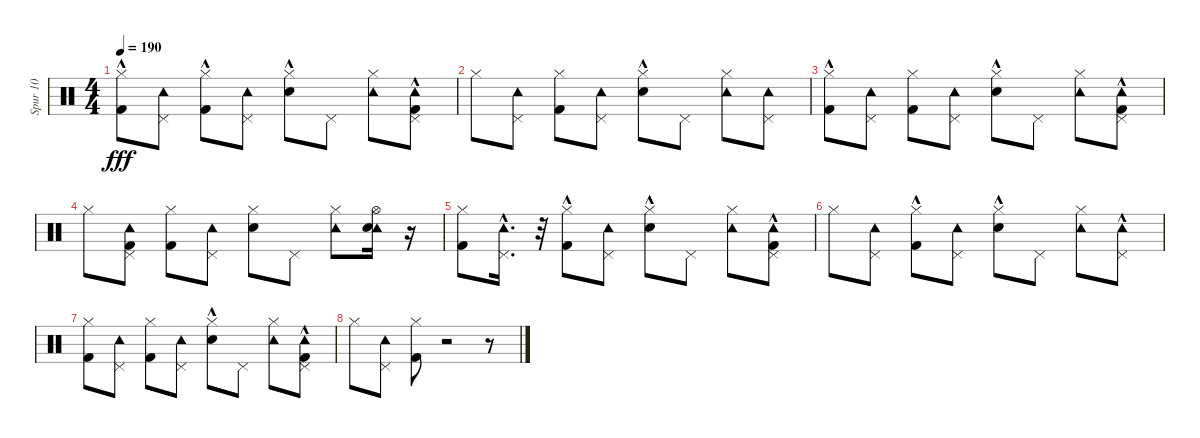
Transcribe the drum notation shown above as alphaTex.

\track ("Spur 10" "Spur 10") {instrument percussion}
\staff {score}
\articulation defaults
\ts (4 4)
\tempo 190
\clef neutral
\ks c
("Hi-Hat (closed)" "Kick (hit) 2"{hac}).8{dy fff} ("Tambourine (hit)" "Pedal Hi-Hat (hit)").8 ("Hi-Hat (closed)" "Kick (hit) 2"{hac}).8 ("Pedal Hi-Hat (hit)" "Tambourine (hit)").8 ("Hi-Hat (closed)" "Electric Snare (hit)"{hac}).8 "Pedal Hi-Hat (hit)".8 ("Tambourine (hit)" "Hi-Hat (closed)").8 ("Pedal Hi-Hat (hit)" "Kick (hit) 2"{hac} "Tambourine (hit)").8 |
"Hi-Hat (closed)".8 ("Tambourine (hit)" "Pedal Hi-Hat (hit)").8 ("Hi-Hat (closed)" "Kick (hit) 2").8 ("Pedal Hi-Hat (hit)" "Tambourine (hit)").8 ("Hi-Hat (closed)" "Electric Snare (hit)"{hac}).8 "Pedal Hi-Hat (hit)".8 ("Tambourine (hit)" "Hi-Hat (closed)").8 ("Pedal Hi-Hat (hit)" "Tambourine (hit)").8 |
("Hi-Hat (closed)" "Kick (hit) 2"{hac}).8 ("Tambourine (hit)" "Pedal Hi-Hat (hit)").8 ("Hi-Hat (closed)" "Kick (hit) 2").8 ("Pedal Hi-Hat (hit)" "Tambourine (hit)").8 ("Hi-Hat (closed)" "Electric Snare (hit)"{hac}).8 "Pedal Hi-Hat (hit)".8 ("Tambourine (hit)" "Hi-Hat (closed)").8 ("Pedal Hi-Hat (hit)" "Kick (hit) 2"{hac} "Tambourine (hit)").8 |
"Hi-Hat (closed)".8 ("Tambourine (hit)" "Kick (hit) 2" "Pedal Hi-Hat (hit)").8 ("Kick (hit) 2" "Hi-Hat (closed)").8 ("Tambourine (hit)" "Pedal Hi-Hat (hit)").8 ("Electric Snare (hit)" "Hi-Hat (closed)").8 "Pedal Hi-Hat (hit)".8 ("Tambourine (hit)" "Hi-Hat (closed)").8 ("Tambourine (hit)" "Electric Snare (hit)" "Hi-Hat (open)").16 r.16 |
("Hi-Hat (closed)" "Kick (hit) 2").8 ("Tambourine (hit)" "Pedal Hi-Hat (hit)"{hac}).16{d} r.32 ("Kick (hit) 2"{hac} "Hi-Hat (closed)").8 ("Tambourine (hit)" "Pedal Hi-Hat (hit)").8 ("Hi-Hat (closed)" "Electric Snare (hit)"{hac}).8 "Pedal Hi-Hat (hit)".8 ("Tambourine (hit)" "Hi-Hat (closed)").8 ("Tambourine (hit)" "Pedal Hi-Hat (hit)" "Kick (hit) 2"{hac}).8 |
"Hi-Hat (closed)".8 ("Tambourine (hit)" "Pedal Hi-Hat (hit)").8 ("Hi-Hat (closed)" "Kick (hit) 2"{hac}).8 ("Pedal Hi-Hat (hit)" "Tambourine (hit)").8 ("Hi-Hat (closed)" "Electric Snare (hit)"{hac}).8 "Pedal Hi-Hat (hit)".8 ("Tambourine (hit)" "Hi-Hat (closed)").8 ("Tambourine (hit)"{hac} "Pedal Hi-Hat (hit)").8 |
("Hi-Hat (closed)" "Kick (hit) 2").8 ("Tambourine (hit)" "Pedal Hi-Hat (hit)").8 ("Hi-Hat (closed)" "Kick (hit) 2").8 ("Tambourine (hit)" "Pedal Hi-Hat (hit)").8 ("Hi-Hat (closed)" "Electric Snare (hit)"{hac}).8 "Pedal Hi-Hat (hit)".8 ("Tambourine (hit)" "Hi-Hat (closed)").8 ("Tambourine (hit)" "Pedal Hi-Hat (hit)" "Kick (hit) 2"{hac}).8 |
"Hi-Hat (closed)".8 ("Tambourine (hit)" "Pedal Hi-Hat (hit)").8 ("Hi-Hat (closed)" "Kick (hit) 2").8 r.2 r.8
